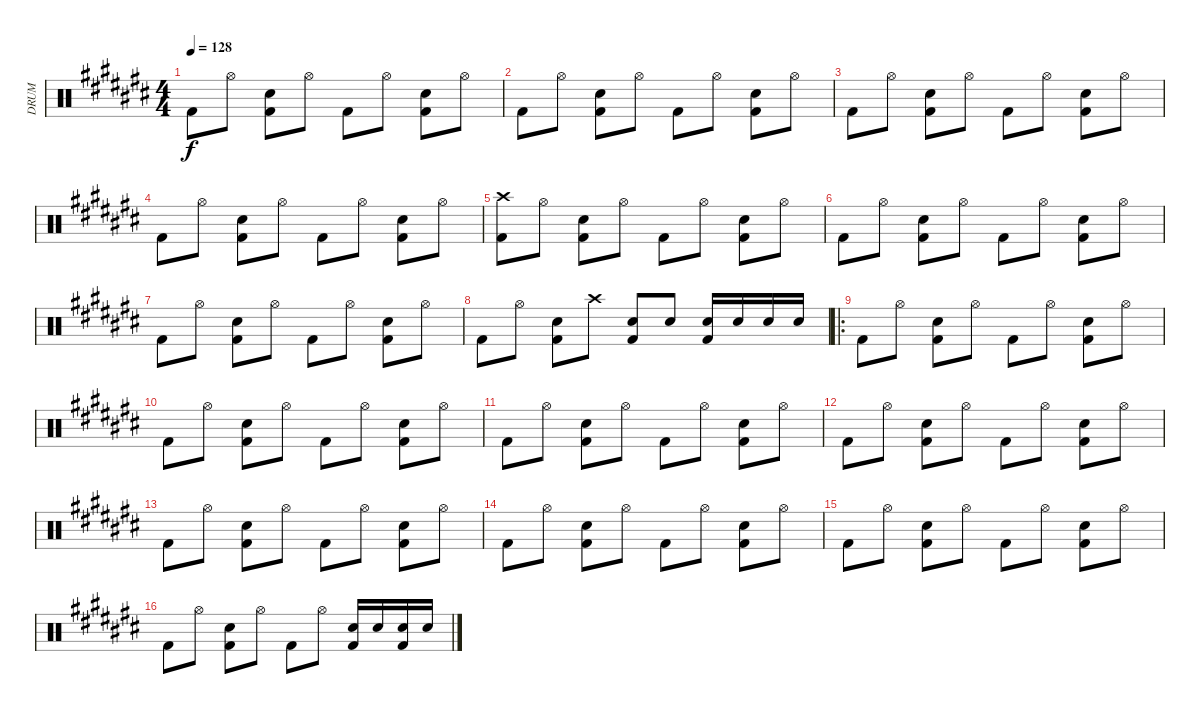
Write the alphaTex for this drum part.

\track ("DRUM" "DRUM") {instrument percussion}
\staff {score}
\articulation defaults
\ts (4 4)
\tempo 128
\clef neutral
\ks c# "Kick (hit) 2".8{dy f} "Hi-Hat (open)".8
("Electric Snare (hit)" "Kick (hit) 2").8 "Hi-Hat (open)".8 "Kick (hit) 2".8 "Hi-Hat (open)".8 ("Electric Snare (hit)" "Kick (hit) 2").8 "Hi-Hat (open)".8 |
"Kick (hit) 2".8 "Hi-Hat (open)".8 ("Electric Snare (hit)" "Kick (hit) 2").8 "Hi-Hat (open)".8 "Kick (hit) 2".8 "Hi-Hat (open)".8 ("Electric Snare (hit)" "Kick (hit) 2").8 "Hi-Hat (open)".8 |
"Kick (hit) 2".8 "Hi-Hat (open)".8 ("Electric Snare (hit)" "Kick (hit) 2").8 "Hi-Hat (open)".8 "Kick (hit) 2".8 "Hi-Hat (open)".8 ("Electric Snare (hit)" "Kick (hit) 2").8 "Hi-Hat (open)".8 |
"Kick (hit) 2".8 "Hi-Hat (open)".8 ("Electric Snare (hit)" "Kick (hit) 2").8 "Hi-Hat (open)".8 "Kick (hit) 2".8 "Hi-Hat (open)".8 ("Electric Snare (hit)" "Kick (hit) 2").8 "Hi-Hat (open)".8 |
("Crash high (hit)" "Kick (hit) 2").8 "Hi-Hat (open)".8 ("Electric Snare (hit)" "Kick (hit) 2").8 "Hi-Hat (open)".8 "Kick (hit) 2".8 "Hi-Hat (open)".8 ("Electric Snare (hit)" "Kick (hit) 2").8 "Hi-Hat (open)".8 |
"Kick (hit) 2".8 "Hi-Hat (open)".8 ("Electric Snare (hit)" "Kick (hit) 2").8 "Hi-Hat (open)".8 "Kick (hit) 2".8 "Hi-Hat (open)".8 ("Electric Snare (hit)" "Kick (hit) 2").8 "Hi-Hat (open)".8 |
"Kick (hit) 2".8 "Hi-Hat (open)".8 ("Electric Snare (hit)" "Kick (hit) 2").8 "Hi-Hat (open)".8 "Kick (hit) 2".8 "Hi-Hat (open)".8 ("Electric Snare (hit)" "Kick (hit) 2").8 "Hi-Hat (open)".8 |
"Kick (hit) 2".8 "Hi-Hat (open)".8 ("Electric Snare (hit)" "Kick (hit) 2").8 "Crash high (hit)".8 ("Electric Snare (hit)" "Kick (hit) 2").8 "Electric Snare (hit)".8 ("Electric Snare (hit)" "Kick (hit) 2").16 "Electric Snare (hit)".16 "Electric Snare (hit)".16 "Electric Snare (hit)".16 |
\ro "Kick (hit) 2".8 "Hi-Hat (open)".8
("Electric Snare (hit)" "Kick (hit) 2").8 "Hi-Hat (open)".8 "Kick (hit) 2".8 "Hi-Hat (open)".8 ("Electric Snare (hit)" "Kick (hit) 2").8 "Hi-Hat (open)".8 |
"Kick (hit) 2".8 "Hi-Hat (open)".8 ("Electric Snare (hit)" "Kick (hit) 2").8 "Hi-Hat (open)".8 "Kick (hit) 2".8 "Hi-Hat (open)".8 ("Electric Snare (hit)" "Kick (hit) 2").8 "Hi-Hat (open)".8 |
"Kick (hit) 2".8 "Hi-Hat (open)".8 ("Electric Snare (hit)" "Kick (hit) 2").8 "Hi-Hat (open)".8 "Kick (hit) 2".8 "Hi-Hat (open)".8 ("Electric Snare (hit)" "Kick (hit) 2").8 "Hi-Hat (open)".8 |
"Kick (hit) 2".8 "Hi-Hat (open)".8 ("Electric Snare (hit)" "Kick (hit) 2").8 "Hi-Hat (open)".8 "Kick (hit) 2".8 "Hi-Hat (open)".8 ("Electric Snare (hit)" "Kick (hit) 2").8 "Hi-Hat (open)".8 |
"Kick (hit) 2".8 "Hi-Hat (open)".8 ("Electric Snare (hit)" "Kick (hit) 2").8 "Hi-Hat (open)".8 "Kick (hit) 2".8 "Hi-Hat (open)".8 ("Electric Snare (hit)" "Kick (hit) 2").8 "Hi-Hat (open)".8 |
"Kick (hit) 2".8 "Hi-Hat (open)".8 ("Electric Snare (hit)" "Kick (hit) 2").8 "Hi-Hat (open)".8 "Kick (hit) 2".8 "Hi-Hat (open)".8 ("Electric Snare (hit)" "Kick (hit) 2").8 "Hi-Hat (open)".8 |
"Kick (hit) 2".8 "Hi-Hat (open)".8 ("Electric Snare (hit)" "Kick (hit) 2").8 "Hi-Hat (open)".8 "Kick (hit) 2".8 "Hi-Hat (open)".8 ("Electric Snare (hit)" "Kick (hit) 2").8 "Hi-Hat (open)".8 |
"Kick (hit) 2".8 "Hi-Hat (open)".8 ("Electric Snare (hit)" "Kick (hit) 2").8 "Hi-Hat (open)".8 "Kick (hit) 2".8 "Hi-Hat (open)".8 ("Electric Snare (hit)" "Kick (hit) 2").16 "Electric Snare (hit)".16 ("Electric Snare (hit)" "Kick (hit) 2").16 "Electric Snare (hit)".16
